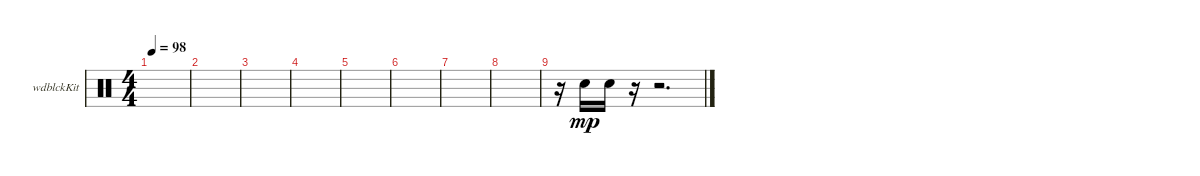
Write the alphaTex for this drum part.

\defaultSystemsLayout 4
\bracketExtendMode groupsimilarinstruments
\firstSystemTrackNameOrientation horizontal
\otherSystemsTrackNameOrientation horizontal
\track ("Woodblock" "wdblckKit") {instrument percussion}
\staff {score}
\articulation defaults
\ts (4 4)
\tempo 98
\clef neutral
\ks c
|
|
|
|
|
|
|
|
r.16 "Snare (hit) 2".16{dy mp} "Snare (hit) 2".16 r.16 r.2{d}
